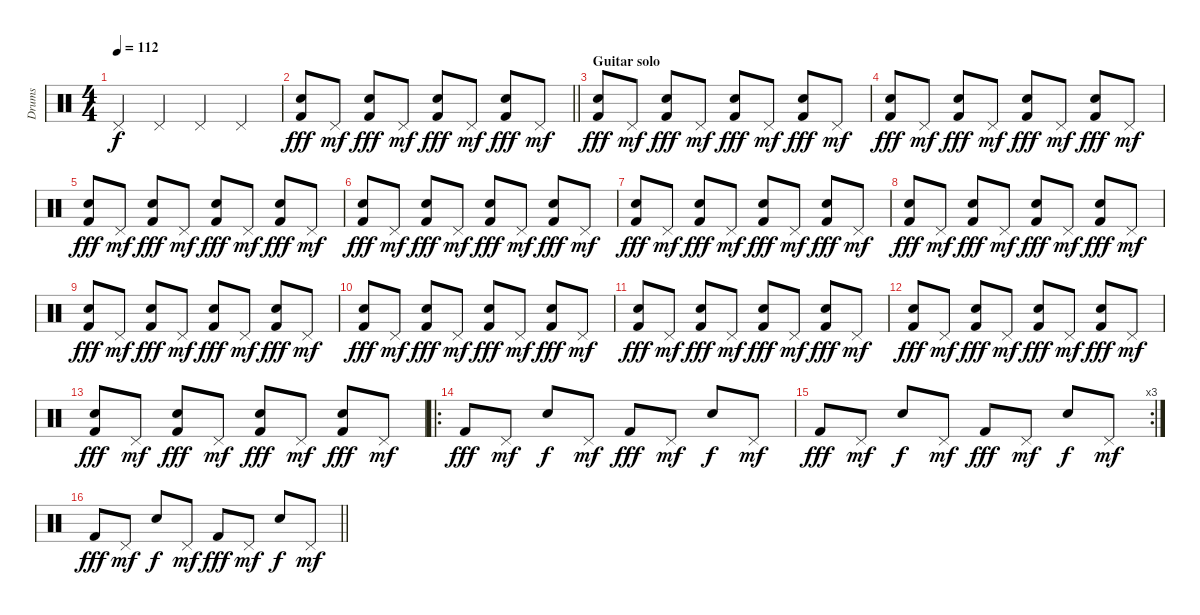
\track ("Drums" "Drums") {instrument percussion}
\staff {score}
\articulation defaults
\ts (4 4)
\tempo 112
\clef neutral
\ks c "Pedal Hi-Hat (hit)".4{dy f} "Pedal Hi-Hat (hit)".4 "Pedal Hi-Hat (hit)".4 "Pedal Hi-Hat (hit)".4
|
\barLineRight lightlight
("Electric Snare (hit)" "Kick (hit) 2").8{dy fff} "Pedal Hi-Hat (hit)".8{dy mf} ("Electric Snare (hit)" "Kick (hit) 2").8{dy fff} "Pedal Hi-Hat (hit)".8{dy mf} ("Electric Snare (hit)" "Kick (hit) 2").8{dy fff} "Pedal Hi-Hat (hit)".8{dy mf} ("Electric Snare (hit)" "Kick (hit) 2").8{dy fff} "Pedal Hi-Hat (hit)".8{dy mf} |
\section ("" "Guitar solo")
("Electric Snare (hit)" "Kick (hit) 2").8{dy fff} "Pedal Hi-Hat (hit)".8{dy mf} ("Electric Snare (hit)" "Kick (hit) 2").8{dy fff} "Pedal Hi-Hat (hit)".8{dy mf} ("Electric Snare (hit)" "Kick (hit) 2").8{dy fff} "Pedal Hi-Hat (hit)".8{dy mf} ("Electric Snare (hit)" "Kick (hit) 2").8{dy fff} "Pedal Hi-Hat (hit)".8{dy mf} |
("Electric Snare (hit)" "Kick (hit) 2").8{dy fff} "Pedal Hi-Hat (hit)".8{dy mf} ("Electric Snare (hit)" "Kick (hit) 2").8{dy fff} "Pedal Hi-Hat (hit)".8{dy mf} ("Electric Snare (hit)" "Kick (hit) 2").8{dy fff} "Pedal Hi-Hat (hit)".8{dy mf} ("Electric Snare (hit)" "Kick (hit) 2").8{dy fff} "Pedal Hi-Hat (hit)".8{dy mf} |
("Electric Snare (hit)" "Kick (hit) 2").8{dy fff} "Pedal Hi-Hat (hit)".8{dy mf} ("Electric Snare (hit)" "Kick (hit) 2").8{dy fff} "Pedal Hi-Hat (hit)".8{dy mf} ("Electric Snare (hit)" "Kick (hit) 2").8{dy fff} "Pedal Hi-Hat (hit)".8{dy mf} ("Electric Snare (hit)" "Kick (hit) 2").8{dy fff} "Pedal Hi-Hat (hit)".8{dy mf} |
("Electric Snare (hit)" "Kick (hit) 2").8{dy fff} "Pedal Hi-Hat (hit)".8{dy mf} ("Electric Snare (hit)" "Kick (hit) 2").8{dy fff} "Pedal Hi-Hat (hit)".8{dy mf} ("Electric Snare (hit)" "Kick (hit) 2").8{dy fff} "Pedal Hi-Hat (hit)".8{dy mf} ("Electric Snare (hit)" "Kick (hit) 2").8{dy fff} "Pedal Hi-Hat (hit)".8{dy mf} |
("Electric Snare (hit)" "Kick (hit) 2").8{dy fff} "Pedal Hi-Hat (hit)".8{dy mf} ("Electric Snare (hit)" "Kick (hit) 2").8{dy fff} "Pedal Hi-Hat (hit)".8{dy mf} ("Electric Snare (hit)" "Kick (hit) 2").8{dy fff} "Pedal Hi-Hat (hit)".8{dy mf} ("Electric Snare (hit)" "Kick (hit) 2").8{dy fff} "Pedal Hi-Hat (hit)".8{dy mf} |
("Electric Snare (hit)" "Kick (hit) 2").8{dy fff} "Pedal Hi-Hat (hit)".8{dy mf} ("Electric Snare (hit)" "Kick (hit) 2").8{dy fff} "Pedal Hi-Hat (hit)".8{dy mf} ("Electric Snare (hit)" "Kick (hit) 2").8{dy fff} "Pedal Hi-Hat (hit)".8{dy mf} ("Electric Snare (hit)" "Kick (hit) 2").8{dy fff} "Pedal Hi-Hat (hit)".8{dy mf} |
("Electric Snare (hit)" "Kick (hit) 2").8{dy fff} "Pedal Hi-Hat (hit)".8{dy mf} ("Electric Snare (hit)" "Kick (hit) 2").8{dy fff} "Pedal Hi-Hat (hit)".8{dy mf} ("Electric Snare (hit)" "Kick (hit) 2").8{dy fff} "Pedal Hi-Hat (hit)".8{dy mf} ("Electric Snare (hit)" "Kick (hit) 2").8{dy fff} "Pedal Hi-Hat (hit)".8{dy mf} |
("Electric Snare (hit)" "Kick (hit) 2").8{dy fff} "Pedal Hi-Hat (hit)".8{dy mf} ("Electric Snare (hit)" "Kick (hit) 2").8{dy fff} "Pedal Hi-Hat (hit)".8{dy mf} ("Electric Snare (hit)" "Kick (hit) 2").8{dy fff} "Pedal Hi-Hat (hit)".8{dy mf} ("Electric Snare (hit)" "Kick (hit) 2").8{dy fff} "Pedal Hi-Hat (hit)".8{dy mf} |
("Electric Snare (hit)" "Kick (hit) 2").8{dy fff} "Pedal Hi-Hat (hit)".8{dy mf} ("Electric Snare (hit)" "Kick (hit) 2").8{dy fff} "Pedal Hi-Hat (hit)".8{dy mf} ("Electric Snare (hit)" "Kick (hit) 2").8{dy fff} "Pedal Hi-Hat (hit)".8{dy mf} ("Electric Snare (hit)" "Kick (hit) 2").8{dy fff} "Pedal Hi-Hat (hit)".8{dy mf} |
("Electric Snare (hit)" "Kick (hit) 2").8{dy fff} "Pedal Hi-Hat (hit)".8{dy mf} ("Electric Snare (hit)" "Kick (hit) 2").8{dy fff} "Pedal Hi-Hat (hit)".8{dy mf} ("Electric Snare (hit)" "Kick (hit) 2").8{dy fff} "Pedal Hi-Hat (hit)".8{dy mf} ("Electric Snare (hit)" "Kick (hit) 2").8{dy fff} "Pedal Hi-Hat (hit)".8{dy mf} |
("Electric Snare (hit)" "Kick (hit) 2").8{dy fff} "Pedal Hi-Hat (hit)".8{dy mf} ("Electric Snare (hit)" "Kick (hit) 2").8{dy fff} "Pedal Hi-Hat (hit)".8{dy mf} ("Electric Snare (hit)" "Kick (hit) 2").8{dy fff} "Pedal Hi-Hat (hit)".8{dy mf} ("Electric Snare (hit)" "Kick (hit) 2").8{dy fff} "Pedal Hi-Hat (hit)".8{dy mf} |
\ro "Kick (hit) 2".8{dy fff} "Pedal Hi-Hat (hit)".8{dy mf} "Electric Snare (hit)".8{dy f} "Pedal Hi-Hat (hit)".8{dy mf} "Kick (hit) 2".8{dy fff} "Pedal Hi-Hat (hit)".8{dy mf} "Electric Snare (hit)".8{dy f} "Pedal Hi-Hat (hit)".8{dy mf}
|
\rc 3 "Kick (hit) 2".8{dy fff} "Pedal Hi-Hat (hit)".8{dy mf} "Electric Snare (hit)".8{dy f} "Pedal Hi-Hat (hit)".8{dy mf} "Kick (hit) 2".8{dy fff} "Pedal Hi-Hat (hit)".8{dy mf} "Electric Snare (hit)".8{dy f} "Pedal Hi-Hat (hit)".8{dy mf}
|
\barLineRight lightlight "Kick (hit) 2".8{dy fff} "Pedal Hi-Hat (hit)".8{dy mf} "Electric Snare (hit)".8{dy f} "Pedal Hi-Hat (hit)".8{dy mf} "Kick (hit) 2".8{dy fff} "Pedal Hi-Hat (hit)".8{dy mf} "Electric Snare (hit)".8{dy f} "Pedal Hi-Hat (hit)".8{dy mf}
